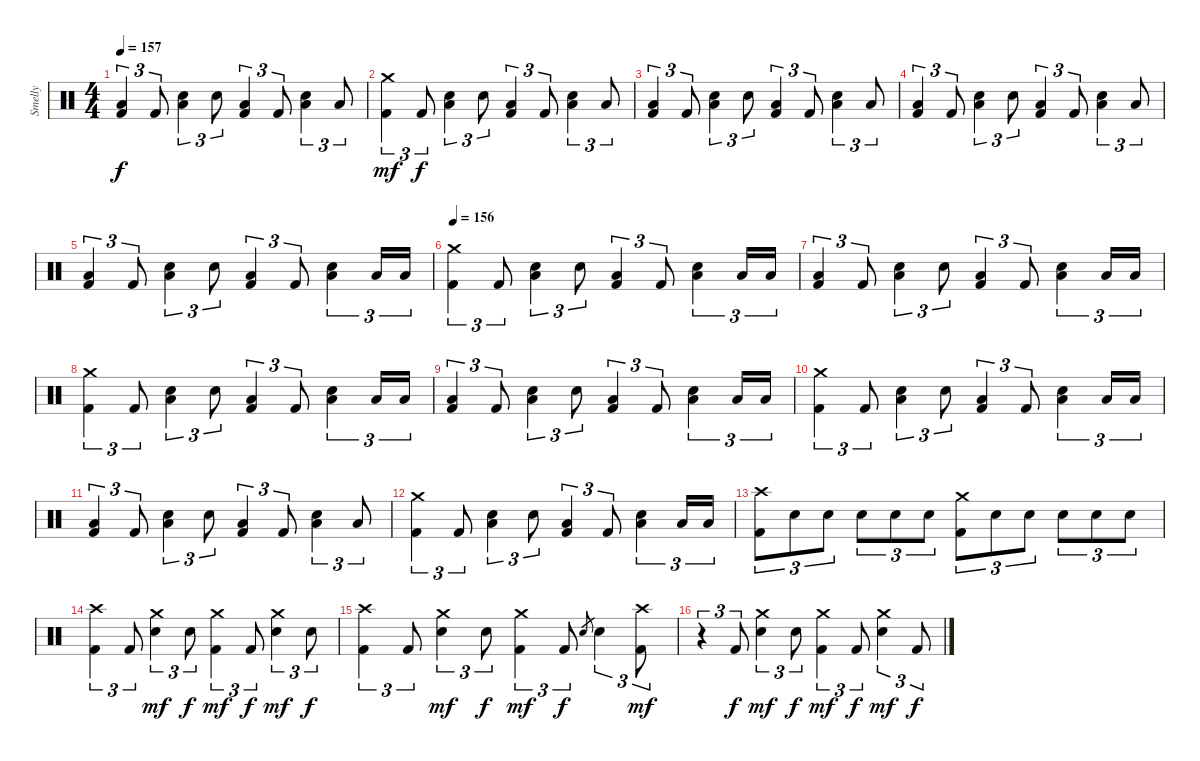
\track ("Smelly" "Smelly") {instrument percussion}
\staff {score}
\articulation defaults
\ts (4 4)
\tempo 157
\clef neutral
\ks c
("Low Floor Tom (hit)" "Kick (hit) 2").4{tu (3 2) dy f} "Kick (hit) 2".8{tu (3 2)} ("Electric Snare (hit)" "Low Floor Tom (hit)").4{tu (3 2)} "Electric Snare (hit)".8{tu (3 2)} ("Low Floor Tom (hit)" "Kick (hit) 2").4{tu (3 2)} "Kick (hit) 2".8{tu (3 2)} ("Electric Snare (hit)" "Low Floor Tom (hit)").4{tu (3 2)} "Low Floor Tom (hit)".8{tu (3 2)} |
("Crash medium (hit)" "Kick (hit) 2").4{tu (3 2) dy mf} "Kick (hit) 2".8{tu (3 2) dy f} ("Electric Snare (hit)" "Low Floor Tom (hit)").4{tu (3 2)} "Electric Snare (hit)".8{tu (3 2)} ("Low Floor Tom (hit)" "Kick (hit) 2").4{tu (3 2)} "Kick (hit) 2".8{tu (3 2)} ("Electric Snare (hit)" "Low Floor Tom (hit)").4{tu (3 2)} "Low Floor Tom (hit)".8{tu (3 2)} |
("Low Floor Tom (hit)" "Kick (hit) 2").4{tu (3 2)} "Kick (hit) 2".8{tu (3 2)} ("Electric Snare (hit)" "Low Floor Tom (hit)").4{tu (3 2)} "Electric Snare (hit)".8{tu (3 2)} ("Low Floor Tom (hit)" "Kick (hit) 2").4{tu (3 2)} "Kick (hit) 2".8{tu (3 2)} ("Electric Snare (hit)" "Low Floor Tom (hit)").4{tu (3 2)} "Low Floor Tom (hit)".8{tu (3 2)} |
("Low Floor Tom (hit)" "Kick (hit) 2").4{tu (3 2)} "Kick (hit) 2".8{tu (3 2)} ("Electric Snare (hit)" "Low Floor Tom (hit)").4{tu (3 2)} "Electric Snare (hit)".8{tu (3 2)} ("Low Floor Tom (hit)" "Kick (hit) 2").4{tu (3 2)} "Kick (hit) 2".8{tu (3 2)} ("Electric Snare (hit)" "Low Floor Tom (hit)").4{tu (3 2)} "Low Floor Tom (hit)".8{tu (3 2)} |
("Low Floor Tom (hit)" "Kick (hit) 2").4{tu (3 2)} "Kick (hit) 2".8{tu (3 2)} ("Electric Snare (hit)" "Low Floor Tom (hit)").4{tu (3 2)} "Electric Snare (hit)".8{tu (3 2)} ("Low Floor Tom (hit)" "Kick (hit) 2").4{tu (3 2)} "Kick (hit) 2".8{tu (3 2)} ("Electric Snare (hit)" "Low Floor Tom (hit)").4{tu (3 2)} "Low Floor Tom (hit)".16{tu (3 2)} "Low Floor Tom (hit)".16{tu (3 2)} |
\tempo 156
("Crash medium (hit)" "Kick (hit) 2").4{tu (3 2)} "Kick (hit) 2".8{tu (3 2)} ("Electric Snare (hit)" "Low Floor Tom (hit)").4{tu (3 2)} "Electric Snare (hit)".8{tu (3 2)} ("Low Floor Tom (hit)" "Kick (hit) 2").4{tu (3 2)} "Kick (hit) 2".8{tu (3 2)} ("Electric Snare (hit)" "Low Floor Tom (hit)").4{tu (3 2)} "Low Floor Tom (hit)".16{tu (3 2)} "Low Floor Tom (hit)".16{tu (3 2)} |
("Low Floor Tom (hit)" "Kick (hit) 2").4{tu (3 2)} "Kick (hit) 2".8{tu (3 2)} ("Electric Snare (hit)" "Low Floor Tom (hit)").4{tu (3 2)} "Electric Snare (hit)".8{tu (3 2)} ("Low Floor Tom (hit)" "Kick (hit) 2").4{tu (3 2)} "Kick (hit) 2".8{tu (3 2)} ("Electric Snare (hit)" "Low Floor Tom (hit)").4{tu (3 2)} "Low Floor Tom (hit)".16{tu (3 2)} "Low Floor Tom (hit)".16{tu (3 2)} |
("Crash medium (hit)" "Kick (hit) 2").4{tu (3 2)} "Kick (hit) 2".8{tu (3 2)} ("Electric Snare (hit)" "Low Floor Tom (hit)").4{tu (3 2)} "Electric Snare (hit)".8{tu (3 2)} ("Low Floor Tom (hit)" "Kick (hit) 2").4{tu (3 2)} "Kick (hit) 2".8{tu (3 2)} ("Electric Snare (hit)" "Low Floor Tom (hit)").4{tu (3 2)} "Low Floor Tom (hit)".16{tu (3 2)} "Low Floor Tom (hit)".16{tu (3 2)} |
("Low Floor Tom (hit)" "Kick (hit) 2").4{tu (3 2)} "Kick (hit) 2".8{tu (3 2)} ("Electric Snare (hit)" "Low Floor Tom (hit)").4{tu (3 2)} "Electric Snare (hit)".8{tu (3 2)} ("Low Floor Tom (hit)" "Kick (hit) 2").4{tu (3 2)} "Kick (hit) 2".8{tu (3 2)} ("Electric Snare (hit)" "Low Floor Tom (hit)").4{tu (3 2)} "Low Floor Tom (hit)".16{tu (3 2)} "Low Floor Tom (hit)".16{tu (3 2)} |
("Crash medium (hit)" "Kick (hit) 2").4{tu (3 2)} "Kick (hit) 2".8{tu (3 2)} ("Electric Snare (hit)" "Low Floor Tom (hit)").4{tu (3 2)} "Electric Snare (hit)".8{tu (3 2)} ("Low Floor Tom (hit)" "Kick (hit) 2").4{tu (3 2)} "Kick (hit) 2".8{tu (3 2)} ("Electric Snare (hit)" "Low Floor Tom (hit)").4{tu (3 2)} "Low Floor Tom (hit)".16{tu (3 2)} "Low Floor Tom (hit)".16{tu (3 2)} |
("Low Floor Tom (hit)" "Kick (hit) 2").4{tu (3 2)} "Kick (hit) 2".8{tu (3 2)} ("Electric Snare (hit)" "Low Floor Tom (hit)").4{tu (3 2)} "Electric Snare (hit)".8{tu (3 2)} ("Low Floor Tom (hit)" "Kick (hit) 2").4{tu (3 2)} "Kick (hit) 2".8{tu (3 2)} ("Electric Snare (hit)" "Low Floor Tom (hit)").4{tu (3 2)} "Low Floor Tom (hit)".8{tu (3 2)} |
("Crash medium (hit)" "Kick (hit) 2").4{tu (3 2)} "Kick (hit) 2".8{tu (3 2)} ("Electric Snare (hit)" "Low Floor Tom (hit)").4{tu (3 2)} "Electric Snare (hit)".8{tu (3 2)} ("Low Floor Tom (hit)" "Kick (hit) 2").4{tu (3 2)} "Kick (hit) 2".8{tu (3 2)} ("Electric Snare (hit)" "Low Floor Tom (hit)").4{tu (3 2)} "Low Floor Tom (hit)".16{tu (3 2)} "Low Floor Tom (hit)".16{tu (3 2)} |
("Crash high (hit)" "Kick (hit) 2").8{tu (3 2)} "Electric Snare (hit)".8{tu (3 2)} "Electric Snare (hit)".8{tu (3 2)} "Electric Snare (hit)".8{tu (3 2)} "Electric Snare (hit)".8{tu (3 2)} "Electric Snare (hit)".8{tu (3 2)} ("Crash medium (hit)" "Kick (hit) 2").8{tu (3 2)} "Electric Snare (hit)".8{tu (3 2)} "Electric Snare (hit)".8{tu (3 2)} "Electric Snare (hit)".8{tu (3 2)} "Electric Snare (hit)".8{tu (3 2)} "Electric Snare (hit)".8{tu (3 2)} |
("Crash high (hit)" "Kick (hit) 2").4{tu (3 2)} "Kick (hit) 2".8{tu (3 2)} ("Crash medium (hit)" "Electric Snare (hit)").4{tu (3 2) dy mf} "Electric Snare (hit)".8{tu (3 2) dy f} ("Crash medium (hit)" "Kick (hit) 2").4{tu (3 2) dy mf} "Kick (hit) 2".8{tu (3 2) dy f} ("Crash medium (hit)" "Electric Snare (hit)").4{tu (3 2) dy mf} "Electric Snare (hit)".8{tu (3 2) dy f} |
("Crash high (hit)" "Kick (hit) 2").4{tu (3 2)} "Kick (hit) 2".8{tu (3 2)} ("Crash medium (hit)" "Electric Snare (hit)").4{tu (3 2) dy mf} "Electric Snare (hit)".8{tu (3 2) dy f} ("Crash medium (hit)" "Kick (hit) 2").4{tu (3 2) dy mf} "Kick (hit) 2".8{tu (3 2) dy f} "Electric Snare (hit)".8{gr} "Electric Snare (hit)".4{tu (3 2)} ("Crash high (hit)" "Kick (hit) 2").8{tu (3 2) dy mf} |
r.4{tu (3 2)} "Kick (hit) 2".8{tu (3 2) dy f} ("Crash medium (hit)" "Electric Snare (hit)").4{tu (3 2) dy mf} "Electric Snare (hit)".8{tu (3 2) dy f} ("Crash medium (hit)" "Kick (hit) 2").4{tu (3 2) dy mf} "Kick (hit) 2".8{tu (3 2) dy f} ("Crash medium (hit)" "Electric Snare (hit)").4{tu (3 2) dy mf} "Kick (hit) 2".8{tu (3 2) dy f}
